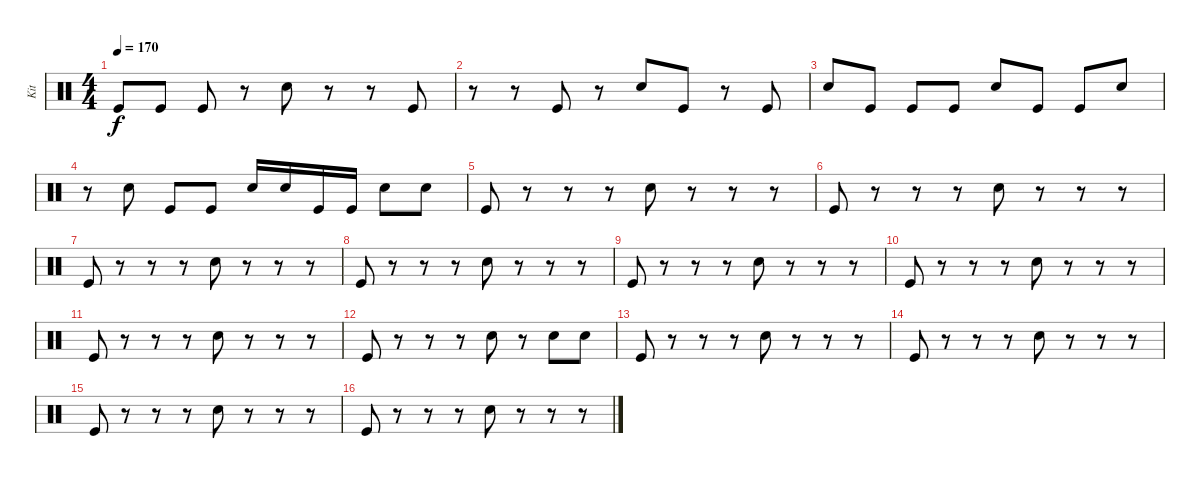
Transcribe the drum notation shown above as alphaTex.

\track ("Kit" "Kit") {instrument percussion}
\staff {score}
\articulation defaults
\ts (4 4)
\tempo 170
\clef neutral
\ks c "Kick (hit)".8{dy f} "Kick (hit)".8 "Kick (hit)".8
r.8 "Snare (hit) 2".8 r.8 r.8 "Kick (hit)".8 |
r.8 r.8 "Kick (hit)".8 r.8 "Snare (hit) 2".8 "Kick (hit)".8 r.8 "Kick (hit)".8 |
"Snare (hit) 2".8 "Kick (hit)".8 "Kick (hit)".8 "Kick (hit)".8 "Snare (hit) 2".8 "Kick (hit)".8 "Kick (hit)".8 "Snare (hit) 2".8 |
r.8 "Snare (hit) 2".8 "Kick (hit)".8 "Kick (hit)".8 "Snare (hit) 2".16 "Snare (hit) 2".16 "Kick (hit)".16 "Kick (hit)".16 "Snare (hit) 2".8 "Snare (hit) 2".8 |
"Kick (hit)".8 r.8 r.8 r.8 "Snare (hit) 2".8 r.8 r.8 r.8 |
"Kick (hit)".8 r.8 r.8 r.8 "Snare (hit) 2".8 r.8 r.8 r.8 |
"Kick (hit)".8 r.8 r.8 r.8 "Snare (hit) 2".8 r.8 r.8 r.8 |
"Kick (hit)".8 r.8 r.8 r.8 "Snare (hit) 2".8 r.8 r.8 r.8 |
"Kick (hit)".8 r.8 r.8 r.8 "Snare (hit) 2".8 r.8 r.8 r.8 |
"Kick (hit)".8 r.8 r.8 r.8 "Snare (hit) 2".8 r.8 r.8 r.8 |
"Kick (hit)".8 r.8 r.8 r.8 "Snare (hit) 2".8 r.8 r.8 r.8 |
"Kick (hit)".8 r.8 r.8 r.8 "Snare (hit) 2".8 r.8 "Snare (hit) 2".8 "Snare (hit) 2".8 |
"Kick (hit)".8 r.8 r.8 r.8 "Snare (hit) 2".8 r.8 r.8 r.8 |
"Kick (hit)".8 r.8 r.8 r.8 "Snare (hit) 2".8 r.8 r.8 r.8 |
"Kick (hit)".8 r.8 r.8 r.8 "Snare (hit) 2".8 r.8 r.8 r.8 |
"Kick (hit)".8 r.8 r.8 r.8 "Snare (hit) 2".8 r.8 r.8 r.8
